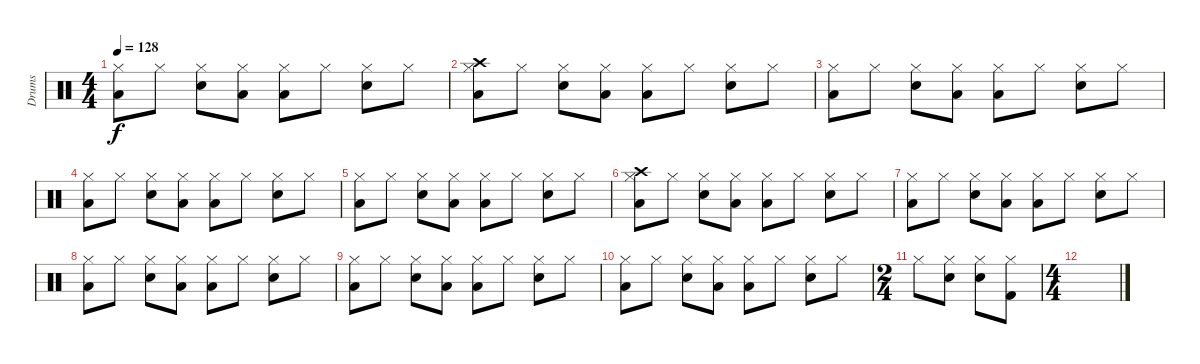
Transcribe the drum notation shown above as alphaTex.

\track ("Drums" "Drums") {instrument percussion}
\staff {score}
\articulation defaults
\ts (4 4)
\tempo 128
\clef neutral
\ks c
("Hi-Hat (closed)" "Low Tom (hit)").8{dy f} "Hi-Hat (closed)".8 ("Hi-Hat (closed)" "Snare (hit) 2").8 ("Hi-Hat (closed)" "Low Tom (hit)").8 ("Hi-Hat (closed)" "Low Tom (hit)").8 "Hi-Hat (closed)".8 ("Hi-Hat (closed)" "Snare (hit) 2").8 "Hi-Hat (closed)".8 |
("Hi-Hat (closed)" "Low Tom (hit)" "Crash high (hit)").8 "Hi-Hat (closed)".8 ("Hi-Hat (closed)" "Snare (hit) 2").8 ("Hi-Hat (closed)" "Low Tom (hit)").8 ("Hi-Hat (closed)" "Low Tom (hit)").8 "Hi-Hat (closed)".8 ("Hi-Hat (closed)" "Snare (hit) 2").8 "Hi-Hat (closed)".8 |
("Hi-Hat (closed)" "Low Tom (hit)").8 "Hi-Hat (closed)".8 ("Hi-Hat (closed)" "Snare (hit) 2").8 ("Hi-Hat (closed)" "Low Tom (hit)").8 ("Hi-Hat (closed)" "Low Tom (hit)").8 "Hi-Hat (closed)".8 ("Hi-Hat (closed)" "Snare (hit) 2").8 "Hi-Hat (closed)".8 |
("Hi-Hat (closed)" "Low Tom (hit)").8 "Hi-Hat (closed)".8 ("Hi-Hat (closed)" "Snare (hit) 2").8 ("Hi-Hat (closed)" "Low Tom (hit)").8 ("Hi-Hat (closed)" "Low Tom (hit)").8 "Hi-Hat (closed)".8 ("Hi-Hat (closed)" "Snare (hit) 2").8 "Hi-Hat (closed)".8 |
("Hi-Hat (closed)" "Low Tom (hit)").8 "Hi-Hat (closed)".8 ("Hi-Hat (closed)" "Snare (hit) 2").8 ("Hi-Hat (closed)" "Low Tom (hit)").8 ("Hi-Hat (closed)" "Low Tom (hit)").8 "Hi-Hat (closed)".8 ("Hi-Hat (closed)" "Snare (hit) 2").8 "Hi-Hat (closed)".8 |
("Hi-Hat (closed)" "Low Tom (hit)" "Crash high (hit)").8 "Hi-Hat (closed)".8 ("Hi-Hat (closed)" "Snare (hit) 2").8 ("Hi-Hat (closed)" "Low Tom (hit)").8 ("Hi-Hat (closed)" "Low Tom (hit)").8 "Hi-Hat (closed)".8 ("Hi-Hat (closed)" "Snare (hit) 2").8 "Hi-Hat (closed)".8 |
("Hi-Hat (closed)" "Low Tom (hit)").8 "Hi-Hat (closed)".8 ("Hi-Hat (closed)" "Snare (hit) 2").8 ("Hi-Hat (closed)" "Low Tom (hit)").8 ("Hi-Hat (closed)" "Low Tom (hit)").8 "Hi-Hat (closed)".8 ("Hi-Hat (closed)" "Snare (hit) 2").8 "Hi-Hat (closed)".8 |
("Hi-Hat (closed)" "Low Tom (hit)").8 "Hi-Hat (closed)".8 ("Hi-Hat (closed)" "Snare (hit) 2").8 ("Hi-Hat (closed)" "Low Tom (hit)").8 ("Hi-Hat (closed)" "Low Tom (hit)").8 "Hi-Hat (closed)".8 ("Hi-Hat (closed)" "Snare (hit) 2").8 "Hi-Hat (closed)".8 |
("Hi-Hat (closed)" "Low Tom (hit)").8 "Hi-Hat (closed)".8 ("Hi-Hat (closed)" "Snare (hit) 2").8 ("Hi-Hat (closed)" "Low Tom (hit)").8 ("Hi-Hat (closed)" "Low Tom (hit)").8 "Hi-Hat (closed)".8 ("Hi-Hat (closed)" "Snare (hit) 2").8 "Hi-Hat (closed)".8 |
("Hi-Hat (closed)" "Low Tom (hit)").8 "Hi-Hat (closed)".8 ("Hi-Hat (closed)" "Snare (hit) 2").8 ("Hi-Hat (closed)" "Low Tom (hit)").8 ("Hi-Hat (closed)" "Low Tom (hit)").8 "Hi-Hat (closed)".8 ("Hi-Hat (closed)" "Snare (hit) 2").8 "Hi-Hat (closed)".8 |
\ts (2 4)
"Hi-Hat (closed)".8 ("Hi-Hat (closed)" "Snare (hit) 2").8 ("Hi-Hat (closed)" "Snare (hit) 2").8 ("Hi-Hat (closed)" "Kick (hit) 2").8 |
\ts (4 4)
